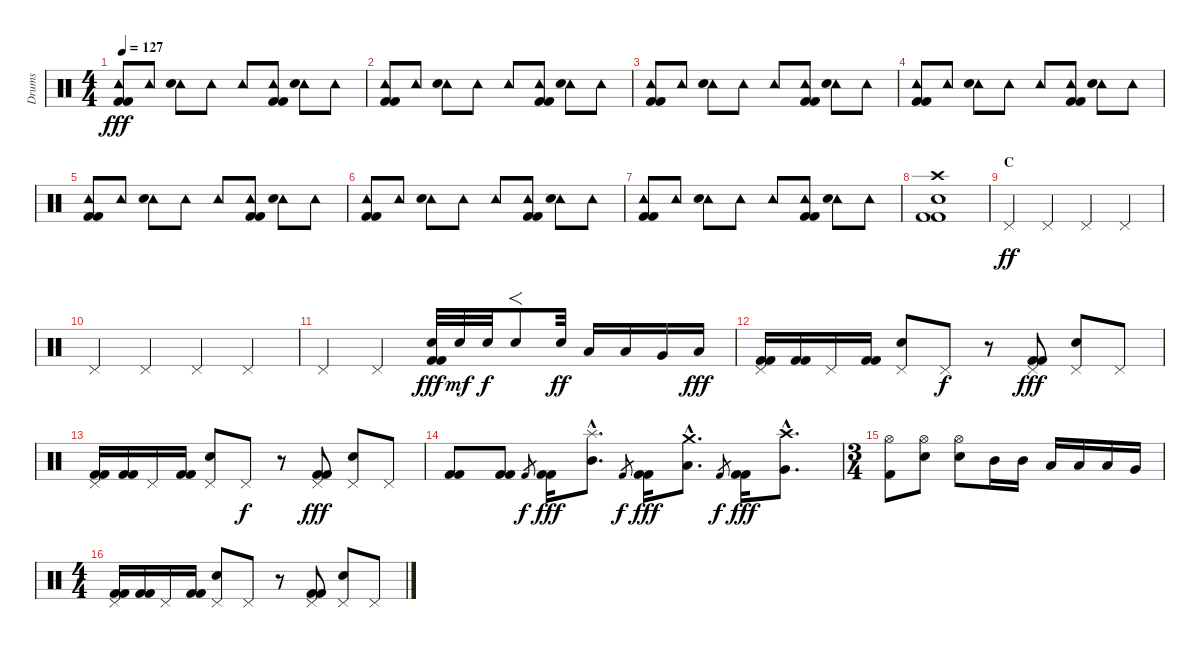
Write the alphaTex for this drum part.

\track ("Drums" "Drums") {instrument percussion}
\staff {score}
\articulation defaults
\ts (4 4)
\tempo 127
\clef neutral
\ks c
("Tambourine (hit)" "Kick (hit) 2" "Kick (hit) 2").8{dy fff} "Tambourine (hit)".8 ("Tambourine (hit)" "Electric Snare (hit)").8 "Tambourine (hit)".8 "Tambourine (hit)".8 ("Tambourine (hit)" "Kick (hit) 2" "Kick (hit) 2").8 ("Tambourine (hit)" "Electric Snare (hit)").8 "Tambourine (hit)".8 |
("Tambourine (hit)" "Kick (hit) 2" "Kick (hit) 2").8 "Tambourine (hit)".8 ("Tambourine (hit)" "Electric Snare (hit)").8 "Tambourine (hit)".8 "Tambourine (hit)".8 ("Tambourine (hit)" "Kick (hit) 2" "Kick (hit) 2").8 ("Tambourine (hit)" "Electric Snare (hit)").8 "Tambourine (hit)".8 |
("Tambourine (hit)" "Kick (hit) 2" "Kick (hit) 2").8 "Tambourine (hit)".8 ("Tambourine (hit)" "Electric Snare (hit)").8 "Tambourine (hit)".8 "Tambourine (hit)".8 ("Tambourine (hit)" "Kick (hit) 2" "Kick (hit) 2").8 ("Tambourine (hit)" "Electric Snare (hit)").8 "Tambourine (hit)".8 |
("Tambourine (hit)" "Kick (hit) 2" "Kick (hit) 2").8 "Tambourine (hit)".8 ("Tambourine (hit)" "Electric Snare (hit)").8 "Tambourine (hit)".8 "Tambourine (hit)".8 ("Tambourine (hit)" "Kick (hit) 2" "Kick (hit) 2").8 ("Tambourine (hit)" "Electric Snare (hit)").8 "Tambourine (hit)".8 |
("Tambourine (hit)" "Kick (hit) 2" "Kick (hit) 2").8 "Tambourine (hit)".8 ("Tambourine (hit)" "Electric Snare (hit)").8 "Tambourine (hit)".8 "Tambourine (hit)".8 ("Tambourine (hit)" "Kick (hit) 2" "Kick (hit) 2").8 ("Tambourine (hit)" "Electric Snare (hit)").8 "Tambourine (hit)".8 |
("Tambourine (hit)" "Kick (hit) 2" "Kick (hit) 2").8 "Tambourine (hit)".8 ("Tambourine (hit)" "Electric Snare (hit)").8 "Tambourine (hit)".8 "Tambourine (hit)".8 ("Tambourine (hit)" "Kick (hit) 2" "Kick (hit) 2").8 ("Tambourine (hit)" "Electric Snare (hit)").8 "Tambourine (hit)".8 |
("Tambourine (hit)" "Kick (hit) 2" "Kick (hit) 2").8 "Tambourine (hit)".8 ("Tambourine (hit)" "Electric Snare (hit)").8 "Tambourine (hit)".8 "Tambourine (hit)".8 ("Tambourine (hit)" "Kick (hit) 2" "Kick (hit) 2").8 ("Tambourine (hit)" "Electric Snare (hit)").8 "Tambourine (hit)".8 |
("Crash high (hit)" "Electric Snare (hit)" "Kick (hit) 2" "Kick (hit) 2").1 |
\section ("" "C")
"Pedal Hi-Hat (hit)".4{dy ff} "Pedal Hi-Hat (hit)".4 "Pedal Hi-Hat (hit)".4 "Pedal Hi-Hat (hit)".4 |
"Pedal Hi-Hat (hit)".4 "Pedal Hi-Hat (hit)".4 "Pedal Hi-Hat (hit)".4 "Pedal Hi-Hat (hit)".4 |
"Pedal Hi-Hat (hit)".4 "Pedal Hi-Hat (hit)".4 ("Electric Snare (hit)" "Kick (hit) 2" "Kick (hit) 2").32{dy fff} "Electric Snare (hit)".32{dy mf} "Electric Snare (hit)".32{dy f} "Electric Snare (hit)".8{f} "Electric Snare (hit)".32{dy ff} "Low Tom (hit)".16 "Low Tom (hit)".16 "Very Low Tom (hit)".16 "Low Floor Tom (hit)".16{dy fff} |
("Pedal Hi-Hat (hit)" "Kick (hit) 2" "Kick (hit) 2").16 ("Kick (hit) 2" "Kick (hit) 2").16 "Pedal Hi-Hat (hit)".16 ("Kick (hit) 2" "Kick (hit) 2").16 ("Pedal Hi-Hat (hit)" "Electric Snare (hit)").8 "Pedal Hi-Hat (hit)".8{dy f} r.8 ("Pedal Hi-Hat (hit)" "Kick (hit) 2" "Kick (hit) 2").8{dy fff} ("Pedal Hi-Hat (hit)" "Electric Snare (hit)").8 "Pedal Hi-Hat (hit)".8 |
("Pedal Hi-Hat (hit)" "Kick (hit) 2" "Kick (hit) 2").16 ("Kick (hit) 2" "Kick (hit) 2").16 "Pedal Hi-Hat (hit)".16 ("Kick (hit) 2" "Kick (hit) 2").16 ("Pedal Hi-Hat (hit)" "Electric Snare (hit)").8 "Pedal Hi-Hat (hit)".8{dy f} r.8 ("Pedal Hi-Hat (hit)" "Kick (hit) 2" "Kick (hit) 2").8{dy fff} ("Pedal Hi-Hat (hit)" "Electric Snare (hit)").8 "Pedal Hi-Hat (hit)".8 |
("Kick (hit) 2" "Kick (hit) 2").8 ("Kick (hit) 2" "Kick (hit) 2").8 "Kick (hit) 2".8{gr dy f} ("Kick (hit) 2" "Kick (hit) 2").16{dy fff} ("Splash (hit)"{hac} "Mid Tom (hit)"{hac}).8{d} "Kick (hit) 2".8{gr dy f} ("Kick (hit) 2" "Kick (hit) 2").16{dy fff} ("Crash medium (hit)"{hac} "Low Tom (hit)"{hac}).8{d} "Kick (hit) 2".8{gr dy f} ("Kick (hit) 2" "Kick (hit) 2").16{dy fff} ("Crash high (hit)"{hac} "Very Low Tom (hit)"{hac}).8{d} |
\ts (3 4)
("Hi-Hat (open)" "Kick (hit) 2").8 ("Hi-Hat (open)" "Electric Snare (hit)").8 ("Hi-Hat (open)" "Electric Snare (hit)").8 "Mid Tom (hit)".16 "Mid Tom (hit)".16 "Low Tom (hit)".16 "Low Tom (hit)".16 "Low Tom (hit)".16 "Very Low Tom (hit)".16 |
\ts (4 4)
("Pedal Hi-Hat (hit)" "Kick (hit) 2" "Kick (hit) 2").16 ("Kick (hit) 2" "Kick (hit) 2").16 "Pedal Hi-Hat (hit)".16 ("Kick (hit) 2" "Kick (hit) 2").16 ("Pedal Hi-Hat (hit)" "Electric Snare (hit)").8 "Pedal Hi-Hat (hit)".8 r.8 ("Pedal Hi-Hat (hit)" "Kick (hit) 2" "Kick (hit) 2").8 ("Pedal Hi-Hat (hit)" "Electric Snare (hit)").8 "Pedal Hi-Hat (hit)".8
